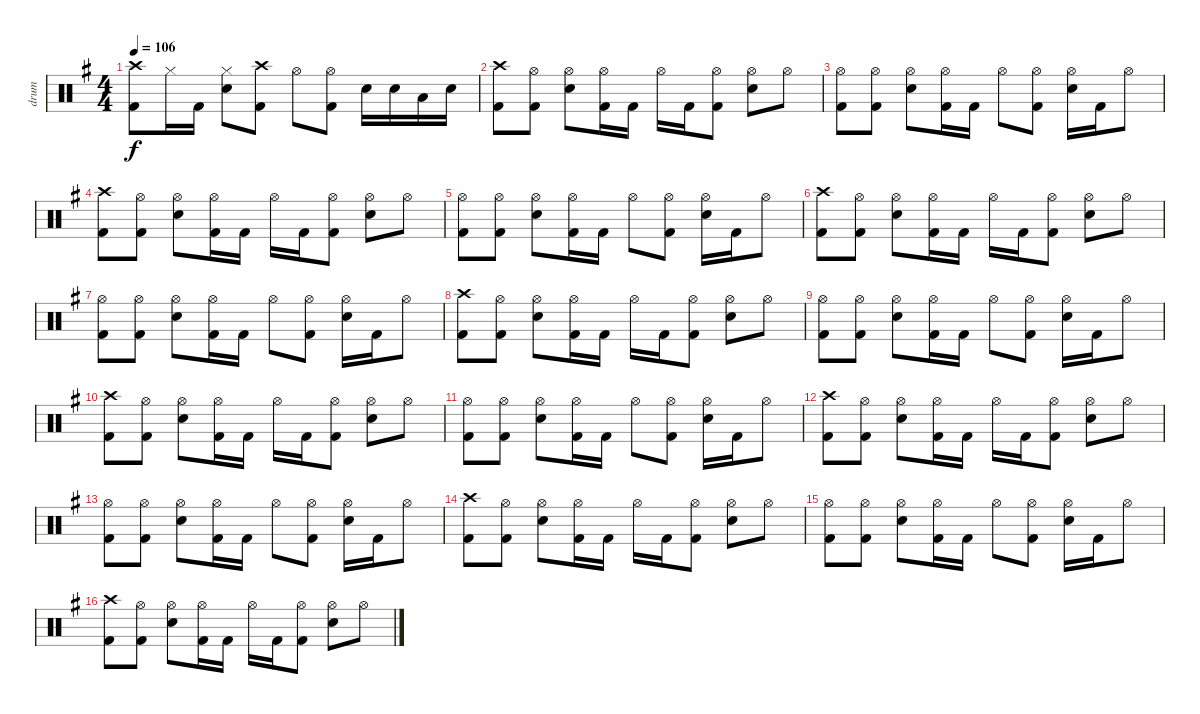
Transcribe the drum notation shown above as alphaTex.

\track ("drum" "drum") {instrument percussion}
\staff {score}
\articulation defaults
\ts (4 4)
\tempo 106
\clef neutral
\ks eminor
("Crash high (hit)" "Kick (hit) 2").8{dy f} "Hi-Hat (closed)".16 "Kick (hit) 2".16 ("Hi-Hat (closed)" "Electric Snare (hit)").8 ("Crash high (hit)" "Kick (hit) 2").8 "Hi-Hat (open)".8 ("Hi-Hat (open)" "Kick (hit) 2").8 "Electric Snare (hit)".16 "Electric Snare (hit)".16 "Low Tom (hit)".16 "Electric Snare (hit)".16 |
("Crash high (hit)" "Kick (hit) 2").8 ("Hi-Hat (open)" "Kick (hit) 2").8 ("Hi-Hat (open)" "Electric Snare (hit)").8 ("Hi-Hat (open)" "Kick (hit) 2").16 "Kick (hit) 2".16 "Hi-Hat (open)".16 "Kick (hit) 2".16 ("Hi-Hat (open)" "Kick (hit) 2").8 ("Hi-Hat (open)" "Electric Snare (hit)").8 "Hi-Hat (open)".8 |
("Hi-Hat (open)" "Kick (hit) 2").8 ("Hi-Hat (open)" "Kick (hit) 2").8 ("Hi-Hat (open)" "Electric Snare (hit)").8 ("Hi-Hat (open)" "Kick (hit) 2").16 "Kick (hit) 2".16 "Hi-Hat (open)".8 ("Hi-Hat (open)" "Kick (hit) 2").8 ("Hi-Hat (open)" "Electric Snare (hit)").16 "Kick (hit) 2".16 "Hi-Hat (open)".8 |
("Crash high (hit)" "Kick (hit) 2").8 ("Hi-Hat (open)" "Kick (hit) 2").8 ("Hi-Hat (open)" "Electric Snare (hit)").8 ("Hi-Hat (open)" "Kick (hit) 2").16 "Kick (hit) 2".16 "Hi-Hat (open)".16 "Kick (hit) 2".16 ("Hi-Hat (open)" "Kick (hit) 2").8 ("Hi-Hat (open)" "Electric Snare (hit)").8 "Hi-Hat (open)".8 |
("Hi-Hat (open)" "Kick (hit) 2").8 ("Hi-Hat (open)" "Kick (hit) 2").8 ("Hi-Hat (open)" "Electric Snare (hit)").8 ("Hi-Hat (open)" "Kick (hit) 2").16 "Kick (hit) 2".16 "Hi-Hat (open)".8 ("Hi-Hat (open)" "Kick (hit) 2").8 ("Hi-Hat (open)" "Electric Snare (hit)").16 "Kick (hit) 2".16 "Hi-Hat (open)".8 |
("Crash high (hit)" "Kick (hit) 2").8 ("Hi-Hat (open)" "Kick (hit) 2").8 ("Hi-Hat (open)" "Electric Snare (hit)").8 ("Hi-Hat (open)" "Kick (hit) 2").16 "Kick (hit) 2".16 "Hi-Hat (open)".16 "Kick (hit) 2".16 ("Hi-Hat (open)" "Kick (hit) 2").8 ("Hi-Hat (open)" "Electric Snare (hit)").8 "Hi-Hat (open)".8 |
("Hi-Hat (open)" "Kick (hit) 2").8 ("Hi-Hat (open)" "Kick (hit) 2").8 ("Hi-Hat (open)" "Electric Snare (hit)").8 ("Hi-Hat (open)" "Kick (hit) 2").16 "Kick (hit) 2".16 "Hi-Hat (open)".8 ("Hi-Hat (open)" "Kick (hit) 2").8 ("Hi-Hat (open)" "Electric Snare (hit)").16 "Kick (hit) 2".16 "Hi-Hat (open)".8 |
("Crash high (hit)" "Kick (hit) 2").8 ("Hi-Hat (open)" "Kick (hit) 2").8 ("Hi-Hat (open)" "Electric Snare (hit)").8 ("Hi-Hat (open)" "Kick (hit) 2").16 "Kick (hit) 2".16 "Hi-Hat (open)".16 "Kick (hit) 2".16 ("Hi-Hat (open)" "Kick (hit) 2").8 ("Hi-Hat (open)" "Electric Snare (hit)").8 "Hi-Hat (open)".8 |
("Hi-Hat (open)" "Kick (hit) 2").8 ("Hi-Hat (open)" "Kick (hit) 2").8 ("Hi-Hat (open)" "Electric Snare (hit)").8 ("Hi-Hat (open)" "Kick (hit) 2").16 "Kick (hit) 2".16 "Hi-Hat (open)".8 ("Hi-Hat (open)" "Kick (hit) 2").8 ("Hi-Hat (open)" "Electric Snare (hit)").16 "Kick (hit) 2".16 "Hi-Hat (open)".8 |
("Crash high (hit)" "Kick (hit) 2").8 ("Hi-Hat (open)" "Kick (hit) 2").8 ("Hi-Hat (open)" "Electric Snare (hit)").8 ("Hi-Hat (open)" "Kick (hit) 2").16 "Kick (hit) 2".16 "Hi-Hat (open)".16 "Kick (hit) 2".16 ("Hi-Hat (open)" "Kick (hit) 2").8 ("Hi-Hat (open)" "Electric Snare (hit)").8 "Hi-Hat (open)".8 |
("Hi-Hat (open)" "Kick (hit) 2").8 ("Hi-Hat (open)" "Kick (hit) 2").8 ("Hi-Hat (open)" "Electric Snare (hit)").8 ("Hi-Hat (open)" "Kick (hit) 2").16 "Kick (hit) 2".16 "Hi-Hat (open)".8 ("Hi-Hat (open)" "Kick (hit) 2").8 ("Hi-Hat (open)" "Electric Snare (hit)").16 "Kick (hit) 2".16 "Hi-Hat (open)".8 |
("Crash high (hit)" "Kick (hit) 2").8 ("Hi-Hat (open)" "Kick (hit) 2").8 ("Hi-Hat (open)" "Electric Snare (hit)").8 ("Hi-Hat (open)" "Kick (hit) 2").16 "Kick (hit) 2".16 "Hi-Hat (open)".16 "Kick (hit) 2".16 ("Hi-Hat (open)" "Kick (hit) 2").8 ("Hi-Hat (open)" "Electric Snare (hit)").8 "Hi-Hat (open)".8 |
("Hi-Hat (open)" "Kick (hit) 2").8 ("Hi-Hat (open)" "Kick (hit) 2").8 ("Hi-Hat (open)" "Electric Snare (hit)").8 ("Hi-Hat (open)" "Kick (hit) 2").16 "Kick (hit) 2".16 "Hi-Hat (open)".8 ("Hi-Hat (open)" "Kick (hit) 2").8 ("Hi-Hat (open)" "Electric Snare (hit)").16 "Kick (hit) 2".16 "Hi-Hat (open)".8 |
("Crash high (hit)" "Kick (hit) 2").8 ("Hi-Hat (open)" "Kick (hit) 2").8 ("Hi-Hat (open)" "Electric Snare (hit)").8 ("Hi-Hat (open)" "Kick (hit) 2").16 "Kick (hit) 2".16 "Hi-Hat (open)".16 "Kick (hit) 2".16 ("Hi-Hat (open)" "Kick (hit) 2").8 ("Hi-Hat (open)" "Electric Snare (hit)").8 "Hi-Hat (open)".8 |
("Hi-Hat (open)" "Kick (hit) 2").8 ("Hi-Hat (open)" "Kick (hit) 2").8 ("Hi-Hat (open)" "Electric Snare (hit)").8 ("Hi-Hat (open)" "Kick (hit) 2").16 "Kick (hit) 2".16 "Hi-Hat (open)".8 ("Hi-Hat (open)" "Kick (hit) 2").8 ("Hi-Hat (open)" "Electric Snare (hit)").16 "Kick (hit) 2".16 "Hi-Hat (open)".8 |
("Crash high (hit)" "Kick (hit) 2").8 ("Hi-Hat (open)" "Kick (hit) 2").8 ("Hi-Hat (open)" "Electric Snare (hit)").8 ("Hi-Hat (open)" "Kick (hit) 2").16 "Kick (hit) 2".16 "Hi-Hat (open)".16 "Kick (hit) 2".16 ("Hi-Hat (open)" "Kick (hit) 2").8 ("Hi-Hat (open)" "Electric Snare (hit)").8 "Hi-Hat (open)".8
